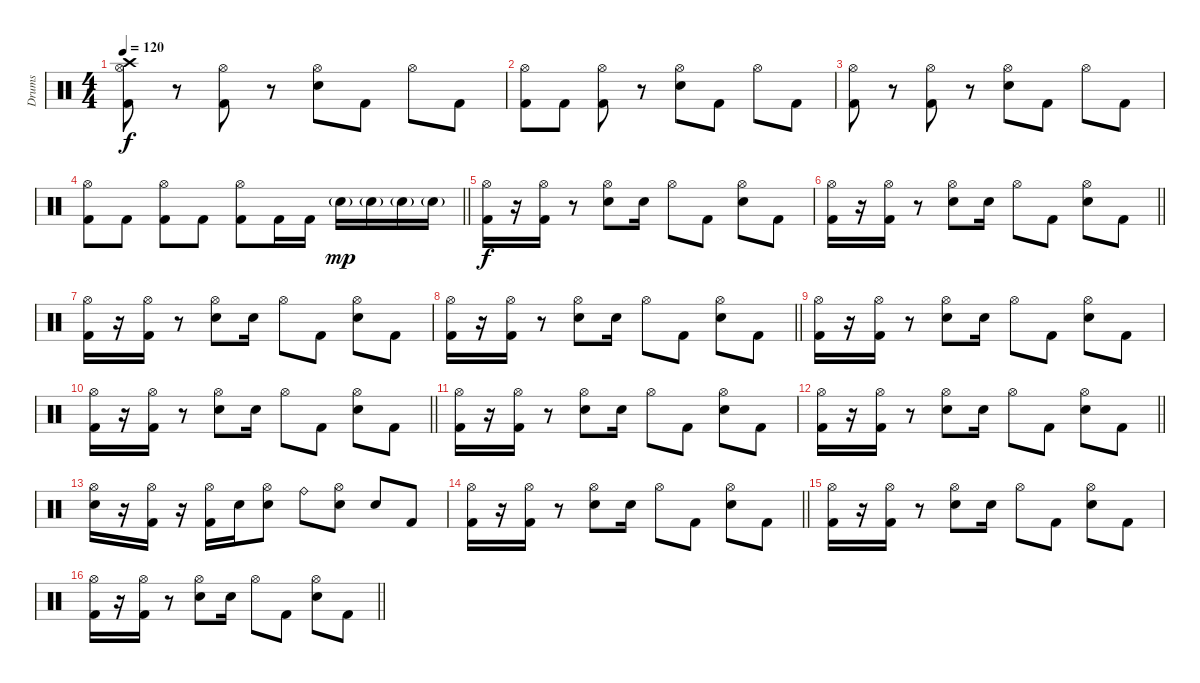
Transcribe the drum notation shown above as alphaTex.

\track ("Drums" "Drums") {instrument percussion}
\staff {score}
\articulation defaults
\ts (4 4)
\tempo 120
\clef neutral
\ks c
("Crash high (hit)" "Hi-Hat (open)" "Kick (hit) 2").8{dy f} r.8 ("Hi-Hat (open)" "Kick (hit) 2").8 r.8 ("Hi-Hat (open)" "Snare (hit) 2").8 "Kick (hit) 2".8 "Hi-Hat (open)".8 "Kick (hit) 2".8 |
("Hi-Hat (open)" "Kick (hit) 2").8 "Kick (hit) 2".8 ("Hi-Hat (open)" "Kick (hit) 2").8 r.8 ("Hi-Hat (open)" "Snare (hit) 2").8 "Kick (hit) 2".8 "Hi-Hat (open)".8 "Kick (hit) 2".8 |
("Hi-Hat (open)" "Kick (hit) 2").8 r.8 ("Hi-Hat (open)" "Kick (hit) 2").8 r.8 ("Hi-Hat (open)" "Snare (hit) 2").8 "Kick (hit) 2".8 "Hi-Hat (open)".8 "Kick (hit) 2".8 |
\barLineRight lightlight
("Hi-Hat (open)" "Kick (hit) 2").8 "Kick (hit) 2".8 ("Hi-Hat (open)" "Kick (hit) 2").8 "Kick (hit) 2".8 ("Hi-Hat (open)" "Kick (hit) 2").8 "Kick (hit) 2".16 "Kick (hit) 2".16 "Snare (hit) 2"{g}.16{dy mp} "Snare (hit) 2"{g}.16 "Electric Snare (hit)"{g}.16 "Electric Snare (hit)"{g}.16 |
("Hi-Hat (open)" "Kick (hit) 2").16{dy f} r.16 ("Hi-Hat (open)" "Kick (hit) 2").16 r.8 ("Hi-Hat (open)" "Electric Snare (hit)").8 "Electric Snare (hit)".16 "Hi-Hat (open)".8 "Kick (hit) 2".8 ("Hi-Hat (open)" "Electric Snare (hit)").8 "Kick (hit) 2".8 |
\barLineRight lightlight
("Hi-Hat (open)" "Kick (hit) 2").16 r.16 ("Hi-Hat (open)" "Kick (hit) 2").16 r.8 ("Hi-Hat (open)" "Electric Snare (hit)").8 "Electric Snare (hit)".16 "Hi-Hat (open)".8 "Kick (hit) 2".8 ("Hi-Hat (open)" "Electric Snare (hit)").8 "Kick (hit) 2".8 |
("Hi-Hat (open)" "Kick (hit) 2").16 r.16 ("Hi-Hat (open)" "Kick (hit) 2").16 r.8 ("Hi-Hat (open)" "Electric Snare (hit)").8 "Electric Snare (hit)".16 "Hi-Hat (open)".8 "Kick (hit) 2".8 ("Hi-Hat (open)" "Electric Snare (hit)").8 "Kick (hit) 2".8 |
\barLineRight lightlight
("Hi-Hat (open)" "Kick (hit) 2").16 r.16 ("Hi-Hat (open)" "Kick (hit) 2").16 r.8 ("Hi-Hat (open)" "Electric Snare (hit)").8 "Electric Snare (hit)".16 "Hi-Hat (open)".8 "Kick (hit) 2".8 ("Hi-Hat (open)" "Electric Snare (hit)").8 "Kick (hit) 2".8 |
("Hi-Hat (open)" "Kick (hit) 2").16 r.16 ("Hi-Hat (open)" "Kick (hit) 2").16 r.8 ("Hi-Hat (open)" "Electric Snare (hit)").8 "Electric Snare (hit)".16 "Hi-Hat (open)".8 "Kick (hit) 2".8 ("Hi-Hat (open)" "Electric Snare (hit)").8 "Kick (hit) 2".8 |
\barLineRight lightlight
("Hi-Hat (open)" "Kick (hit) 2").16 r.16 ("Hi-Hat (open)" "Kick (hit) 2").16 r.8 ("Hi-Hat (open)" "Electric Snare (hit)").8 "Electric Snare (hit)".16 "Hi-Hat (open)".8 "Kick (hit) 2".8 ("Hi-Hat (open)" "Electric Snare (hit)").8 "Kick (hit) 2".8 |
("Hi-Hat (open)" "Kick (hit) 2").16 r.16 ("Hi-Hat (open)" "Kick (hit) 2").16 r.8 ("Hi-Hat (open)" "Electric Snare (hit)").8 "Electric Snare (hit)".16 "Hi-Hat (open)".8 "Kick (hit) 2".8 ("Hi-Hat (open)" "Electric Snare (hit)").8 "Kick (hit) 2".8 |
\barLineRight lightlight
("Hi-Hat (open)" "Kick (hit) 2").16 r.16 ("Hi-Hat (open)" "Kick (hit) 2").16 r.8 ("Hi-Hat (open)" "Electric Snare (hit)").8 "Electric Snare (hit)".16 "Hi-Hat (open)".8 "Kick (hit) 2".8 ("Hi-Hat (open)" "Electric Snare (hit)").8 "Kick (hit) 2".8 |
("Hi-Hat (open)" "Electric Snare (hit)").16 r.16 ("Hi-Hat (open)" "Kick (hit) 2").16 r.16 ("Hi-Hat (open)" "Kick (hit) 2").16 "Electric Snare (hit)".16 ("Hi-Hat (open)" "Electric Snare (hit)").8 "Ride (bell)".8 ("Hi-Hat (open)" "Electric Snare (hit)").8 "Electric Snare (hit)".8 "Kick (hit) 2".8 |
\barLineRight lightlight
("Hi-Hat (open)" "Kick (hit) 2").16 r.16 ("Hi-Hat (open)" "Kick (hit) 2").16 r.8 ("Hi-Hat (open)" "Electric Snare (hit)").8 "Electric Snare (hit)".16 "Hi-Hat (open)".8 "Kick (hit) 2".8 ("Hi-Hat (open)" "Electric Snare (hit)").8 "Kick (hit) 2".8 |
("Hi-Hat (open)" "Kick (hit) 2").16 r.16 ("Hi-Hat (open)" "Kick (hit) 2").16 r.8 ("Hi-Hat (open)" "Electric Snare (hit)").8 "Electric Snare (hit)".16 "Hi-Hat (open)".8 "Kick (hit) 2".8 ("Hi-Hat (open)" "Electric Snare (hit)").8 "Kick (hit) 2".8 |
\barLineRight lightlight
("Hi-Hat (open)" "Kick (hit) 2").16 r.16 ("Hi-Hat (open)" "Kick (hit) 2").16 r.8 ("Hi-Hat (open)" "Electric Snare (hit)").8 "Electric Snare (hit)".16 "Hi-Hat (open)".8 "Kick (hit) 2".8 ("Hi-Hat (open)" "Electric Snare (hit)").8 "Kick (hit) 2".8
